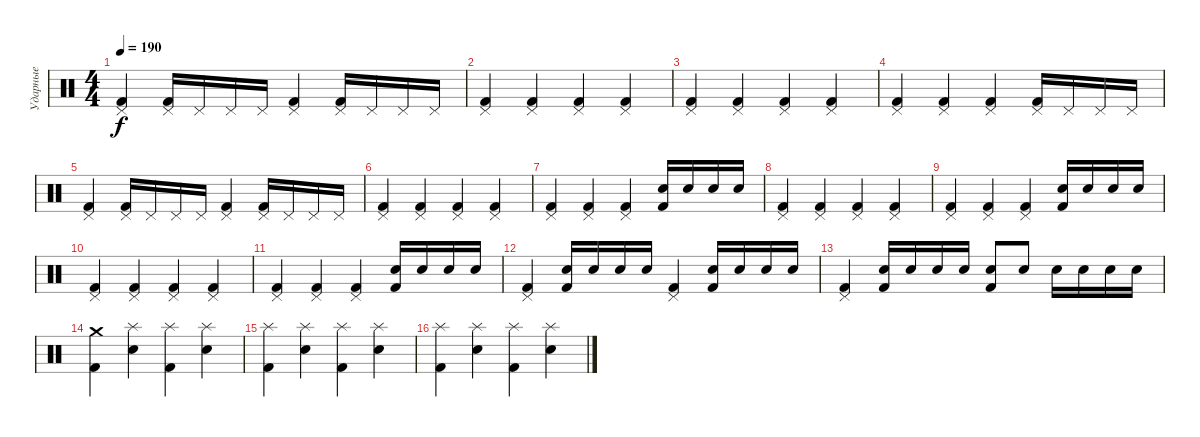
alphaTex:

\track ("Ударные" "Ударные") {instrument percussion}
\staff {score}
\articulation defaults
\ts (4 4)
\tempo 190
\clef neutral
\ks c
("Pedal Hi-Hat (hit)" "Kick (hit) 2").4{dy f} ("Pedal Hi-Hat (hit)" "Kick (hit) 2").16 "Pedal Hi-Hat (hit)".16 "Pedal Hi-Hat (hit)".16 "Pedal Hi-Hat (hit)".16 ("Pedal Hi-Hat (hit)" "Kick (hit) 2").4 ("Pedal Hi-Hat (hit)" "Kick (hit) 2").16 "Pedal Hi-Hat (hit)".16 "Pedal Hi-Hat (hit)".16 "Pedal Hi-Hat (hit)".16 |
("Pedal Hi-Hat (hit)" "Kick (hit) 2").4 ("Pedal Hi-Hat (hit)" "Kick (hit) 2").4 ("Pedal Hi-Hat (hit)" "Kick (hit) 2").4 ("Pedal Hi-Hat (hit)" "Kick (hit) 2").4 |
("Pedal Hi-Hat (hit)" "Kick (hit) 2").4 ("Pedal Hi-Hat (hit)" "Kick (hit) 2").4 ("Pedal Hi-Hat (hit)" "Kick (hit) 2").4 ("Pedal Hi-Hat (hit)" "Kick (hit) 2").4 |
("Pedal Hi-Hat (hit)" "Kick (hit) 2").4 ("Pedal Hi-Hat (hit)" "Kick (hit) 2").4 ("Pedal Hi-Hat (hit)" "Kick (hit) 2").4 ("Pedal Hi-Hat (hit)" "Kick (hit) 2").16 "Pedal Hi-Hat (hit)".16 "Pedal Hi-Hat (hit)".16 "Pedal Hi-Hat (hit)".16 |
("Pedal Hi-Hat (hit)" "Kick (hit) 2").4 ("Pedal Hi-Hat (hit)" "Kick (hit) 2").16 "Pedal Hi-Hat (hit)".16 "Pedal Hi-Hat (hit)".16 "Pedal Hi-Hat (hit)".16 ("Pedal Hi-Hat (hit)" "Kick (hit) 2").4 ("Pedal Hi-Hat (hit)" "Kick (hit) 2").16 "Pedal Hi-Hat (hit)".16 "Pedal Hi-Hat (hit)".16 "Pedal Hi-Hat (hit)".16 |
("Pedal Hi-Hat (hit)" "Kick (hit) 2").4 ("Pedal Hi-Hat (hit)" "Kick (hit) 2").4 ("Pedal Hi-Hat (hit)" "Kick (hit) 2").4 ("Pedal Hi-Hat (hit)" "Kick (hit) 2").4 |
("Pedal Hi-Hat (hit)" "Kick (hit) 2").4 ("Pedal Hi-Hat (hit)" "Kick (hit) 2").4 ("Pedal Hi-Hat (hit)" "Kick (hit) 2").4 ("Electric Snare (hit)" "Kick (hit) 2").16 "Electric Snare (hit)".16 "Electric Snare (hit)".16 "Electric Snare (hit)".16 |
("Pedal Hi-Hat (hit)" "Kick (hit) 2").4 ("Pedal Hi-Hat (hit)" "Kick (hit) 2").4 ("Pedal Hi-Hat (hit)" "Kick (hit) 2").4 ("Pedal Hi-Hat (hit)" "Kick (hit) 2").4 |
("Pedal Hi-Hat (hit)" "Kick (hit) 2").4 ("Pedal Hi-Hat (hit)" "Kick (hit) 2").4 ("Pedal Hi-Hat (hit)" "Kick (hit) 2").4 ("Electric Snare (hit)" "Kick (hit) 2").16 "Electric Snare (hit)".16 "Electric Snare (hit)".16 "Electric Snare (hit)".16 |
("Pedal Hi-Hat (hit)" "Kick (hit) 2").4 ("Pedal Hi-Hat (hit)" "Kick (hit) 2").4 ("Pedal Hi-Hat (hit)" "Kick (hit) 2").4 ("Pedal Hi-Hat (hit)" "Kick (hit) 2").4 |
("Pedal Hi-Hat (hit)" "Kick (hit) 2").4 ("Pedal Hi-Hat (hit)" "Kick (hit) 2").4 ("Pedal Hi-Hat (hit)" "Kick (hit) 2").4 ("Electric Snare (hit)" "Kick (hit) 2").16 "Electric Snare (hit)".16 "Electric Snare (hit)".16 "Electric Snare (hit)".16 |
("Pedal Hi-Hat (hit)" "Kick (hit) 2").4 ("Electric Snare (hit)" "Kick (hit) 2").16 "Electric Snare (hit)".16 "Electric Snare (hit)".16 "Electric Snare (hit)".16 ("Pedal Hi-Hat (hit)" "Kick (hit) 2").4 ("Electric Snare (hit)" "Kick (hit) 2").16 "Electric Snare (hit)".16 "Electric Snare (hit)".16 "Electric Snare (hit)".16 |
("Pedal Hi-Hat (hit)" "Kick (hit) 2").4 ("Electric Snare (hit)" "Kick (hit) 2").16 "Electric Snare (hit)".16 "Electric Snare (hit)".16 "Electric Snare (hit)".16 ("Electric Snare (hit)" "Kick (hit) 2").8 "Electric Snare (hit)".8 "Electric Snare (hit)".16 "Electric Snare (hit)".16 "Electric Snare (hit)".16 "Electric Snare (hit)".16 |
("Crash medium (hit)" "Kick (hit) 2").4 ("Splash (hit)" "Snare (hit) 2").4 ("Splash (hit)" "Kick (hit) 2").4 ("Splash (hit)" "Snare (hit) 2").4 |
("Splash (hit)" "Kick (hit) 2").4 ("Splash (hit)" "Snare (hit) 2").4 ("Splash (hit)" "Kick (hit) 2").4 ("Splash (hit)" "Snare (hit) 2").4 |
("Splash (hit)" "Kick (hit) 2").4 ("Splash (hit)" "Snare (hit) 2").4 ("Splash (hit)" "Kick (hit) 2").4 ("Splash (hit)" "Snare (hit) 2").4
